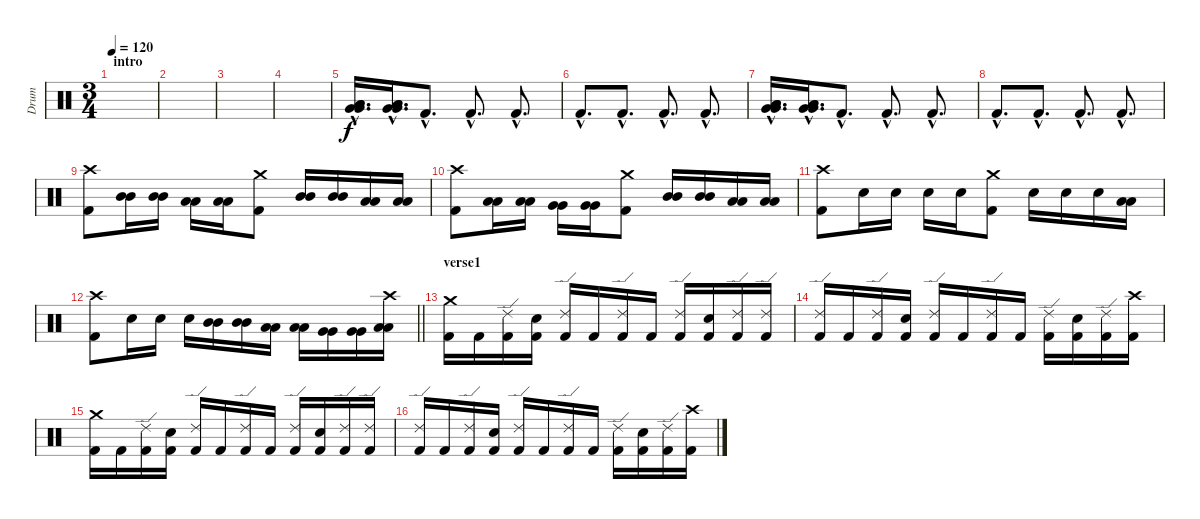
\track ("Drum" "Drum") {instrument percussion}
\staff {score}
\articulation defaults
\ts (3 4)
\section ("" "intro")
\tempo 120
\clef neutral
\ks c
|
|
|
|
("Low Tom (hit)"{hac} "Low Tom (hit)"{hac} "Very Low Tom (hit)"{hac} "Very Low Tom (hit)"{hac}).16{d} ("Low Tom (hit)"{hac} "Low Tom (hit)"{hac} "Very Low Tom (hit)"{hac} "Very Low Tom (hit)"{hac}).16{d} "Kick (hit) 2"{hac}.8{d} "Kick (hit) 2"{hac}.8{d} "Kick (hit) 2"{hac}.8{d} |
"Kick (hit) 2"{hac}.8{d} "Kick (hit) 2"{hac}.8{d} "Kick (hit) 2"{hac}.8{d} "Kick (hit) 2"{hac}.8{d} |
("Low Tom (hit)"{hac} "Low Tom (hit)"{hac} "Very Low Tom (hit)"{hac} "Very Low Tom (hit)"{hac}).16{d} ("Low Tom (hit)"{hac} "Low Tom (hit)"{hac} "Very Low Tom (hit)"{hac} "Very Low Tom (hit)"{hac}).16{d} "Kick (hit) 2"{hac}.8{d} "Kick (hit) 2"{hac}.8{d} "Kick (hit) 2"{hac}.8{d} |
"Kick (hit) 2"{hac}.8{d} "Kick (hit) 2"{hac}.8{d} "Kick (hit) 2"{hac}.8{d} "Kick (hit) 2"{hac}.8{d} |
("Crash high (hit)" "Kick (hit) 2").8 ("Mid Tom (hit)" "Mid Tom (hit)").16 ("Mid Tom (hit)" "Mid Tom (hit)").16 ("Low Tom (hit)" "Low Tom (hit)").16 ("Low Tom (hit)" "Low Tom (hit)").16 ("Crash medium (hit)" "Kick (hit) 2").8 ("Mid Tom (hit)" "Mid Tom (hit)").16 ("Mid Tom (hit)" "Mid Tom (hit)").16 ("Low Tom (hit)" "Low Tom (hit)").16 ("Low Tom (hit)" "Low Tom (hit)").16 |
("Crash high (hit)" "Kick (hit) 2").8 ("Low Tom (hit)" "Low Tom (hit)").16 ("Low Tom (hit)" "Low Tom (hit)").16 ("Very Low Tom (hit)" "Very Low Tom (hit)").16 ("Very Low Tom (hit)" "Very Low Tom (hit)").16 ("Crash medium (hit)" "Kick (hit) 2").8 ("Mid Tom (hit)" "Mid Tom (hit)").16 ("Mid Tom (hit)" "Mid Tom (hit)").16 ("Low Tom (hit)" "Low Tom (hit)").16 ("Low Tom (hit)" "Low Tom (hit)").16 |
("Crash high (hit)" "Kick (hit) 2").8 "Snare (hit) 2".16 "Snare (hit) 2".16 "Snare (hit) 2".16 "Snare (hit) 2".16 ("Crash medium (hit)" "Kick (hit) 2").8 "Snare (hit) 2".16 "Snare (hit) 2".16 "Snare (hit) 2".16 ("Low Tom (hit)" "Low Tom (hit)").16 |
\barLineRight lightlight
("Crash high (hit)" "Kick (hit) 2").8 "Snare (hit) 2".16 "Snare (hit) 2".16 "Snare (hit) 2".16 ("Mid Tom (hit)" "Mid Tom (hit)").16 ("Mid Tom (hit)" "Mid Tom (hit)").16 ("Low Tom (hit)" "Low Tom (hit)").16 ("Low Tom (hit)" "Low Tom (hit)").16 ("Very Low Tom (hit)" "Very Low Tom (hit)").16 ("Very Low Tom (hit)" "Very Low Tom (hit)").16 ("Crash high (hit)" "Low Floor Tom (hit)" "Low Floor Tom (hit)").16 |
\section ("" "verse1")
("Crash medium (hit)" "Kick (hit) 2").16 "Kick (hit) 2".16 ("Ride (edge) 2" "Kick (hit) 2").16 ("Snare (hit) 2" "Kick (hit) 2").16 ("Ride (edge) 2" "Kick (hit) 2").16 "Kick (hit) 2".16 ("Ride (edge) 2" "Kick (hit) 2").16 "Kick (hit) 2".16 ("Ride (edge) 2" "Kick (hit) 2").16 ("Snare (hit) 2" "Kick (hit) 2").16 ("Ride (edge) 2" "Kick (hit) 2").16 ("Ride (edge) 2" "Kick (hit) 2").16 |
("Ride (edge) 2" "Kick (hit) 2").16 "Kick (hit) 2".16 ("Ride (edge) 2" "Kick (hit) 2").16 ("Snare (hit) 2" "Kick (hit) 2").16 ("Ride (edge) 2" "Kick (hit) 2").16 "Kick (hit) 2".16 ("Ride (edge) 2" "Kick (hit) 2").16 "Kick (hit) 2".16 ("Ride (edge) 2" "Kick (hit) 2").16 ("Snare (hit) 2" "Kick (hit) 2").16 ("Ride (edge) 2" "Kick (hit) 2").16 ("Crash high (hit)" "Kick (hit) 2").16 |
("Crash medium (hit)" "Kick (hit) 2").16 "Kick (hit) 2".16 ("Ride (edge) 2" "Kick (hit) 2").16 ("Snare (hit) 2" "Kick (hit) 2").16 ("Ride (edge) 2" "Kick (hit) 2").16 "Kick (hit) 2".16 ("Ride (edge) 2" "Kick (hit) 2").16 "Kick (hit) 2".16 ("Ride (edge) 2" "Kick (hit) 2").16 ("Snare (hit) 2" "Kick (hit) 2").16 ("Ride (edge) 2" "Kick (hit) 2").16 ("Ride (edge) 2" "Kick (hit) 2").16 |
("Ride (edge) 2" "Kick (hit) 2").16 "Kick (hit) 2".16 ("Ride (edge) 2" "Kick (hit) 2").16 ("Snare (hit) 2" "Kick (hit) 2").16 ("Ride (edge) 2" "Kick (hit) 2").16 "Kick (hit) 2".16 ("Ride (edge) 2" "Kick (hit) 2").16 "Kick (hit) 2".16 ("Ride (edge) 2" "Kick (hit) 2").16 ("Snare (hit) 2" "Kick (hit) 2").16 ("Ride (edge) 2" "Kick (hit) 2").16 ("Crash high (hit)" "Kick (hit) 2").16
